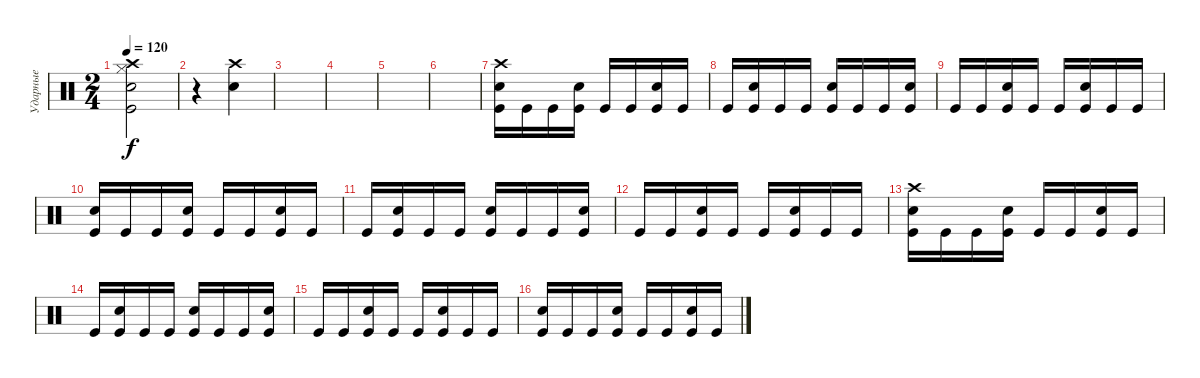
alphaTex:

\track ("Ударные" "Ударные") {instrument percussion}
\staff {score}
\articulation defaults
\ts (2 4)
\tempo 120
\clef neutral
\ks c
("Crash high (hit)" "Hi-Hat (closed)" "Electric Snare (hit)" "Kick (hit)").2{dy f} |
r.4 ("Electric Snare (hit)" "Crash high (hit)").4 |
|
|
|
|
("Crash high (hit)" "Electric Snare (hit)" "Kick (hit)").16 "Kick (hit)".16 "Kick (hit)".16 ("Electric Snare (hit)" "Kick (hit)").16 "Kick (hit)".16 "Kick (hit)".16 ("Electric Snare (hit)" "Kick (hit)").16 "Kick (hit)".16 |
"Kick (hit)".16 ("Electric Snare (hit)" "Kick (hit)").16 "Kick (hit)".16 "Kick (hit)".16 ("Electric Snare (hit)" "Kick (hit)").16 "Kick (hit)".16 "Kick (hit)".16 ("Electric Snare (hit)" "Kick (hit)").16 |
"Kick (hit)".16 "Kick (hit)".16 ("Electric Snare (hit)" "Kick (hit)").16 "Kick (hit)".16 "Kick (hit)".16 ("Electric Snare (hit)" "Kick (hit)").16 "Kick (hit)".16 "Kick (hit)".16 |
("Electric Snare (hit)" "Kick (hit)").16 "Kick (hit)".16 "Kick (hit)".16 ("Electric Snare (hit)" "Kick (hit)").16 "Kick (hit)".16 "Kick (hit)".16 ("Electric Snare (hit)" "Kick (hit)").16 "Kick (hit)".16 |
"Kick (hit)".16 ("Electric Snare (hit)" "Kick (hit)").16 "Kick (hit)".16 "Kick (hit)".16 ("Electric Snare (hit)" "Kick (hit)").16 "Kick (hit)".16 "Kick (hit)".16 ("Electric Snare (hit)" "Kick (hit)").16 |
"Kick (hit)".16 "Kick (hit)".16 ("Electric Snare (hit)" "Kick (hit)").16 "Kick (hit)".16 "Kick (hit)".16 ("Electric Snare (hit)" "Kick (hit)").16 "Kick (hit)".16 "Kick (hit)".16 |
("Crash high (hit)" "Electric Snare (hit)" "Kick (hit)").16 "Kick (hit)".16 "Kick (hit)".16 ("Electric Snare (hit)" "Kick (hit)").16 "Kick (hit)".16 "Kick (hit)".16 ("Electric Snare (hit)" "Kick (hit)").16 "Kick (hit)".16 |
"Kick (hit)".16 ("Electric Snare (hit)" "Kick (hit)").16 "Kick (hit)".16 "Kick (hit)".16 ("Electric Snare (hit)" "Kick (hit)").16 "Kick (hit)".16 "Kick (hit)".16 ("Electric Snare (hit)" "Kick (hit)").16 |
"Kick (hit)".16 "Kick (hit)".16 ("Electric Snare (hit)" "Kick (hit)").16 "Kick (hit)".16 "Kick (hit)".16 ("Electric Snare (hit)" "Kick (hit)").16 "Kick (hit)".16 "Kick (hit)".16 |
("Electric Snare (hit)" "Kick (hit)").16 "Kick (hit)".16 "Kick (hit)".16 ("Electric Snare (hit)" "Kick (hit)").16 "Kick (hit)".16 "Kick (hit)".16 ("Electric Snare (hit)" "Kick (hit)").16 "Kick (hit)".16
